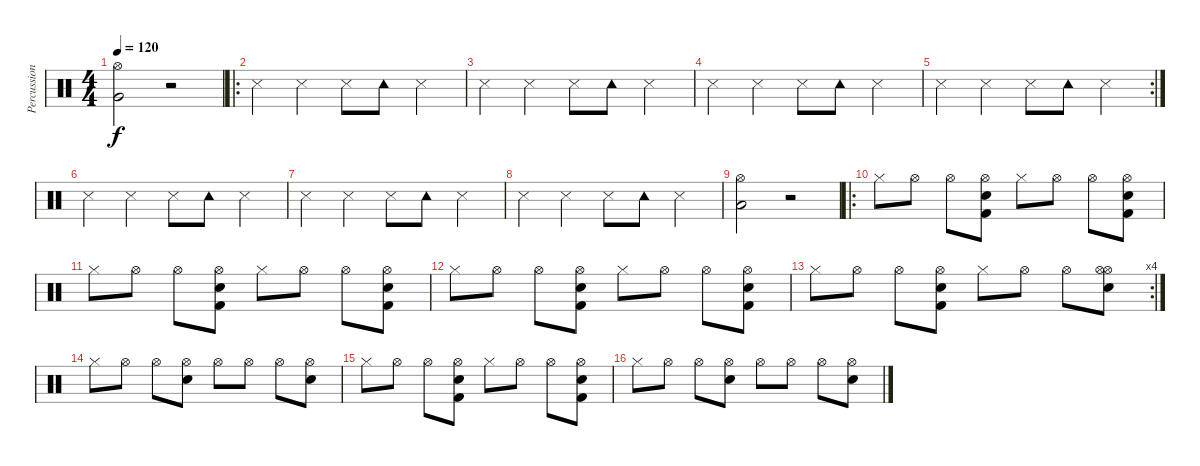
\track ("Percussion" "Percussion") {instrument percussion}
\staff {score}
\articulation defaults
\ts (4 4)
\tempo 120
\clef neutral
\ks c
("Very Low Tom (hit)" "Hi-Hat (open)").2{dy f} r.2 |
\ro "Snare (side stick) 3".4 "Snare (side stick) 3".4 "Snare (side stick) 3".8 "Tambourine (hit)".8 "Snare (side stick) 3".4
|
"Snare (side stick) 3".4 "Snare (side stick) 3".4 "Snare (side stick) 3".8 "Tambourine (hit)".8 "Snare (side stick) 3".4 |
"Snare (side stick) 3".4 "Snare (side stick) 3".4 "Snare (side stick) 3".8 "Tambourine (hit)".8 "Snare (side stick) 3".4 |
\rc 2 "Snare (side stick) 3".4 "Snare (side stick) 3".4 "Snare (side stick) 3".8 "Tambourine (hit)".8 "Snare (side stick) 3".4
|
"Snare (side stick) 3".4 "Snare (side stick) 3".4 "Snare (side stick) 3".8 "Tambourine (hit)".8 "Snare (side stick) 3".4 |
"Snare (side stick) 3".4 "Snare (side stick) 3".4 "Snare (side stick) 3".8 "Tambourine (hit)".8 "Snare (side stick) 3".4 |
"Snare (side stick) 3".4 "Snare (side stick) 3".4 "Snare (side stick) 3".8 "Tambourine (hit)".8 "Snare (side stick) 3".4 |
("Low Tom (hit)" "Hi-Hat (open)").2 r.2 |
\ro "Hi-Hat (closed)".8 "Hi-Hat (open)".8 "Hi-Hat (open)".8
("Snare (hit) 2" "Kick (hit) 2" "Hi-Hat (open)").8 "Hi-Hat (closed)".8 "Hi-Hat (open)".8 "Hi-Hat (open)".8 ("Snare (hit) 2" "Kick (hit) 2" "Hi-Hat (open)").8 |
"Hi-Hat (closed)".8 "Hi-Hat (open)".8 "Hi-Hat (open)".8 ("Snare (hit) 2" "Kick (hit) 2" "Hi-Hat (open)").8 "Hi-Hat (closed)".8 "Hi-Hat (open)".8 "Hi-Hat (open)".8 ("Snare (hit) 2" "Kick (hit) 2" "Hi-Hat (open)").8 |
"Hi-Hat (closed)".8 "Hi-Hat (open)".8 "Hi-Hat (open)".8 ("Snare (hit) 2" "Kick (hit) 2" "Hi-Hat (open)").8 "Hi-Hat (closed)".8 "Hi-Hat (open)".8 "Hi-Hat (open)".8 ("Snare (hit) 2" "Kick (hit) 2" "Hi-Hat (open)").8 |
\rc 4 "Hi-Hat (closed)".8 "Hi-Hat (open)".8 "Hi-Hat (open)".8
("Snare (hit) 2" "Kick (hit) 2" "Hi-Hat (open)").8 "Hi-Hat (closed)".8 "Hi-Hat (open)".8 "Hi-Hat (open)".8 ("Snare (hit) 2" "Hi-Hat (open)" "Hi-Hat (open)").8 |
"Hi-Hat (closed)".8 "Hi-Hat (open)".8 "Hi-Hat (open)".8 ("Snare (hit) 2" "Hi-Hat (open)").8 "Hi-Hat (open)".8 "Hi-Hat (open)".8 "Hi-Hat (open)".8 ("Snare (hit) 2" "Hi-Hat (open)").8 |
"Hi-Hat (closed)".8 "Hi-Hat (open)".8 "Hi-Hat (open)".8 ("Snare (hit) 2" "Kick (hit) 2" "Hi-Hat (open)").8 "Hi-Hat (closed)".8 "Hi-Hat (open)".8 "Hi-Hat (open)".8 ("Snare (hit) 2" "Kick (hit) 2" "Hi-Hat (open)").8 |
"Hi-Hat (closed)".8 "Hi-Hat (open)".8 "Hi-Hat (open)".8 ("Snare (hit) 2" "Hi-Hat (open)").8 "Hi-Hat (open)".8 "Hi-Hat (open)".8 "Hi-Hat (open)".8 ("Snare (hit) 2" "Hi-Hat (open)").8
